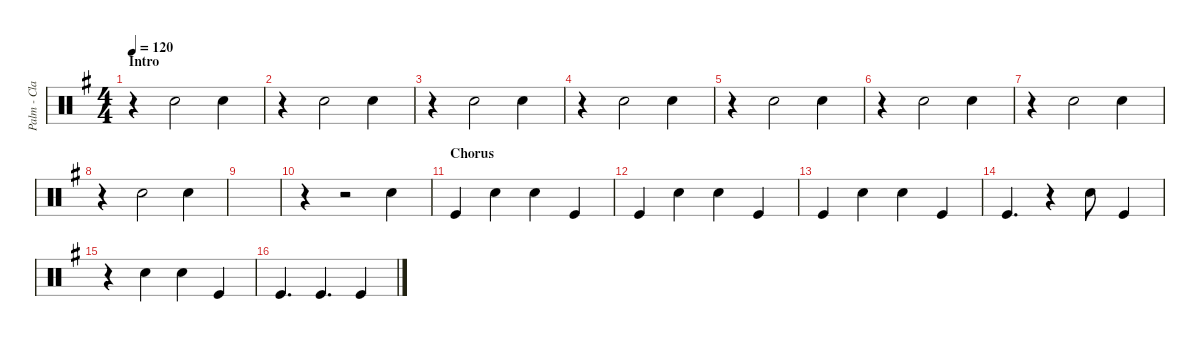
\defaultSystemsLayout 4
\hideDynamics
\bracketExtendMode nobrackets
\otherSystemsTrackNameOrientation horizontal
\track ("Palm - Clap" "Palm - Cla") {defaultSystemsLayout 2 instrument percussion}
\staff {score}
\articulation defaults
\ts (4 4)
\section ("" "Intro")
\tempo 120
\clef neutral
\ks g
r.4{dy mp} "Hand Clap (hit)"{acc forcenatural}.2 "Hand Clap (hit)"{acc forcenatural}.4 |
r.4 "Hand Clap (hit)"{acc forcenatural}.2 "Hand Clap (hit)"{acc forcenatural}.4 |
r.4 "Hand Clap (hit)"{acc forcenatural}.2 "Hand Clap (hit)"{acc forcenatural}.4 |
r.4 "Hand Clap (hit)"{acc forcenatural}.2 "Hand Clap (hit)"{acc forcenatural}.4 |
r.4 "Hand Clap (hit)"{acc forcenatural}.2 "Hand Clap (hit)"{acc forcenatural}.4 |
r.4 "Hand Clap (hit)"{acc forcenatural}.2 "Hand Clap (hit)"{acc forcenatural}.4 |
r.4 "Hand Clap (hit)"{acc forcenatural}.2 "Hand Clap (hit)"{acc forcenatural}.4 |
r.4 "Hand Clap (hit)"{acc forcenatural}.2 "Hand Clap (hit)"{acc forcenatural}.4 |
|
r.4 r.2 "Hand Clap (hit)"{acc forcenatural}.4 |
\section ("" "Chorus")
"Kick (hit)"{acc forcenatural}.4 "Hand Clap (hit)"{acc forcenatural}.4 "Hand Clap (hit)"{acc forcenatural}.4 "Kick (hit)"{acc forcenatural}.4 |
"Kick (hit)"{acc forcenatural}.4 "Hand Clap (hit)"{acc forcenatural}.4 "Hand Clap (hit)"{acc forcenatural}.4 "Kick (hit)"{acc forcenatural}.4 |
"Kick (hit)"{acc forcenatural}.4 "Hand Clap (hit)"{acc forcenatural}.4 "Hand Clap (hit)"{acc forcenatural}.4 "Kick (hit)"{acc forcenatural}.4 |
"Kick (hit)"{acc forcenatural}.4{d} r.4 "Hand Clap (hit)"{acc forcenatural}.8 "Kick (hit)"{acc forcenatural}.4 |
r.4 "Hand Clap (hit)"{acc forcenatural}.4 "Hand Clap (hit)"{acc forcenatural}.4 "Kick (hit)"{acc forcenatural}.4 |
"Kick (hit)"{acc forcenatural}.4{d} "Kick (hit)"{acc forcenatural}.4{d} "Kick (hit)"{acc forcenatural}.4
